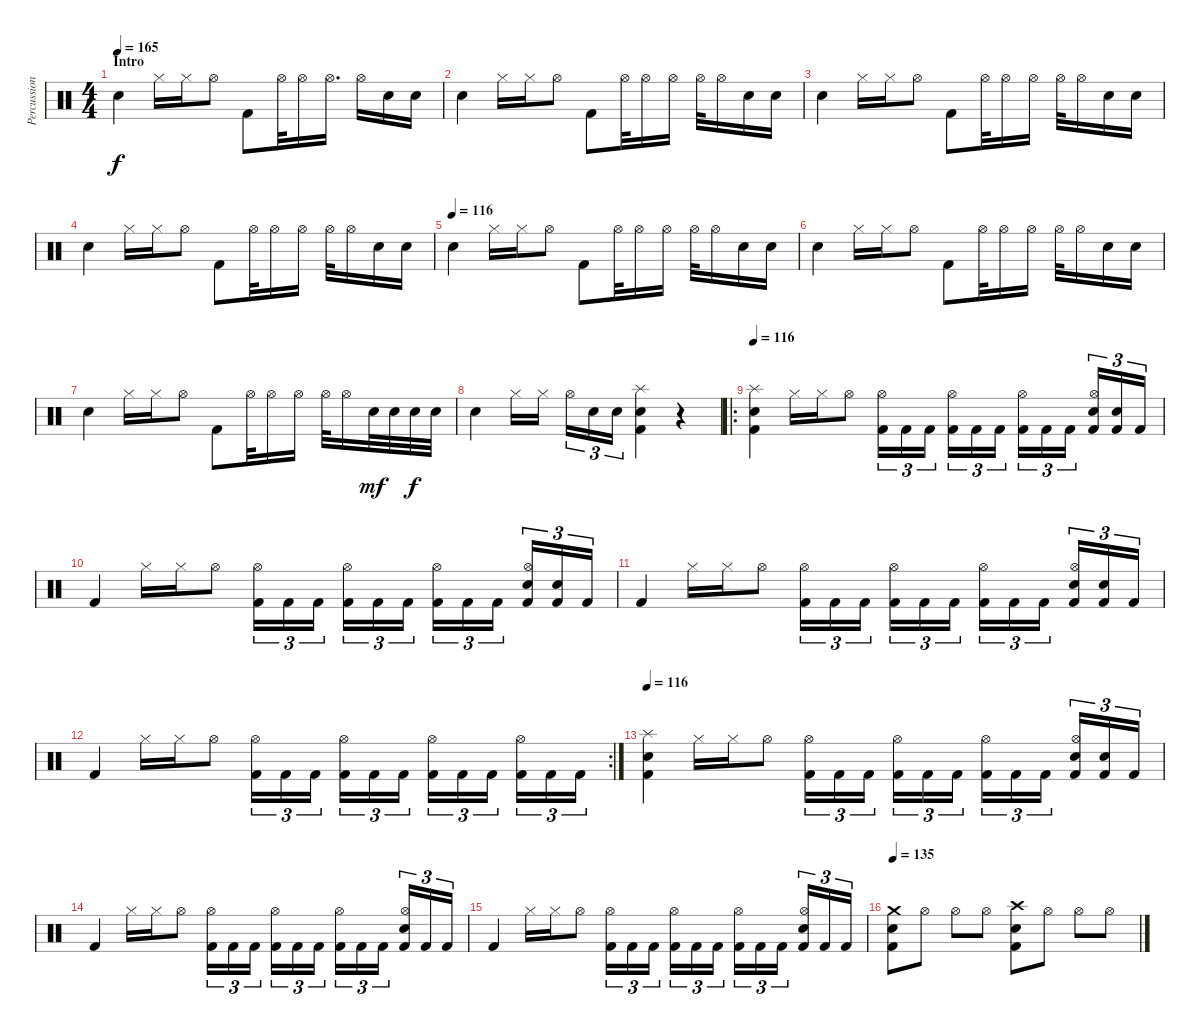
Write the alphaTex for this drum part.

\track ("Percussions" "Percussion") {instrument percussion}
\staff {score}
\articulation defaults
\ts (4 4)
\section ("" "Intro")
\tempo 165
\tempo 116
\tempo 165
\clef neutral
\ks c "Electric Snare (hit)".4{dy f} "Hi-Hat (closed)".16 "Hi-Hat (closed)".16 "Hi-Hat (open)".8 "Kick (hit) 2".8 "Hi-Hat (open)".32 "Hi-Hat (open)".16 "Hi-Hat (open)".16{d} "Hi-Hat (open)".16 "Electric Snare (hit)".16 "Electric Snare (hit)".16
|
"Electric Snare (hit)".4 "Hi-Hat (closed)".16 "Hi-Hat (closed)".16 "Hi-Hat (open)".8 "Kick (hit) 2".8 "Hi-Hat (open)".32 "Hi-Hat (open)".16 "Hi-Hat (open)".16 "Hi-Hat (open)".32 "Hi-Hat (open)".16 "Electric Snare (hit)".16 "Electric Snare (hit)".16 |
"Electric Snare (hit)".4 "Hi-Hat (closed)".16 "Hi-Hat (closed)".16 "Hi-Hat (open)".8 "Kick (hit) 2".8 "Hi-Hat (open)".32 "Hi-Hat (open)".16 "Hi-Hat (open)".16 "Hi-Hat (open)".32 "Hi-Hat (open)".16 "Electric Snare (hit)".16 "Electric Snare (hit)".16 |
"Electric Snare (hit)".4 "Hi-Hat (closed)".16 "Hi-Hat (closed)".16 "Hi-Hat (open)".8 "Kick (hit) 2".8 "Hi-Hat (open)".32 "Hi-Hat (open)".16 "Hi-Hat (open)".16 "Hi-Hat (open)".32 "Hi-Hat (open)".16 "Electric Snare (hit)".16 "Electric Snare (hit)".16 |
\tempo (116)
"Electric Snare (hit)".4 "Hi-Hat (closed)".16 "Hi-Hat (closed)".16 "Hi-Hat (open)".8 "Kick (hit) 2".8 "Hi-Hat (open)".32 "Hi-Hat (open)".16 "Hi-Hat (open)".16 "Hi-Hat (open)".32 "Hi-Hat (open)".16 "Electric Snare (hit)".16 "Electric Snare (hit)".16 |
"Electric Snare (hit)".4 "Hi-Hat (closed)".16 "Hi-Hat (closed)".16 "Hi-Hat (open)".8 "Kick (hit) 2".8 "Hi-Hat (open)".32 "Hi-Hat (open)".16 "Hi-Hat (open)".16 "Hi-Hat (open)".32 "Hi-Hat (open)".16 "Electric Snare (hit)".16 "Electric Snare (hit)".16 |
"Electric Snare (hit)".4 "Hi-Hat (closed)".16 "Hi-Hat (closed)".16 "Hi-Hat (open)".8 "Kick (hit) 2".8 "Hi-Hat (open)".32 "Hi-Hat (open)".16 "Hi-Hat (open)".16 "Hi-Hat (open)".32 "Hi-Hat (open)".16 "Electric Snare (hit)".32{dy mf} "Electric Snare (hit)".32 "Electric Snare (hit)".32{dy f} "Electric Snare (hit)".32 |
"Electric Snare (hit)".4 "Hi-Hat (closed)".16 "Hi-Hat (closed)".16 "Hi-Hat (open)".16{tu (3 2)} "Electric Snare (hit)".16{tu (3 2)} "Electric Snare (hit)".16{tu (3 2)} ("Splash (hit)" "Electric Snare (hit)" "Kick (hit) 2").4 r.4 |
\ro
\tempo 116
("Splash (hit)" "Electric Snare (hit)" "Kick (hit) 2").4 "Hi-Hat (closed)".16 "Hi-Hat (closed)".16 "Hi-Hat (open)".8 ("Hi-Hat (open)" "Kick (hit) 2").16{tu (3 2)} "Kick (hit) 2".16{tu (3 2)} "Kick (hit) 2".16{tu (3 2)} ("Hi-Hat (open)" "Kick (hit) 2").16{tu (3 2)} "Kick (hit) 2".16{tu (3 2)} "Kick (hit) 2".16{tu (3 2)} ("Hi-Hat (open)" "Kick (hit) 2").16{tu (3 2)} "Kick (hit) 2".16{tu (3 2)} "Kick (hit) 2".16{tu (3 2)} ("Hi-Hat (open)" "Electric Snare (hit)" "Kick (hit) 2").16{tu (3 2)} ("Electric Snare (hit)" "Kick (hit) 2").16{tu (3 2)} "Kick (hit) 2".16{tu (3 2)} |
"Kick (hit) 2".4 "Hi-Hat (closed)".16 "Hi-Hat (closed)".16 "Hi-Hat (open)".8 ("Hi-Hat (open)" "Kick (hit) 2").16{tu (3 2)} "Kick (hit) 2".16{tu (3 2)} "Kick (hit) 2".16{tu (3 2)} ("Hi-Hat (open)" "Kick (hit) 2").16{tu (3 2)} "Kick (hit) 2".16{tu (3 2)} "Kick (hit) 2".16{tu (3 2)} ("Hi-Hat (open)" "Kick (hit) 2").16{tu (3 2)} "Kick (hit) 2".16{tu (3 2)} "Kick (hit) 2".16{tu (3 2)} ("Hi-Hat (open)" "Electric Snare (hit)" "Kick (hit) 2").16{tu (3 2)} ("Electric Snare (hit)" "Kick (hit) 2").16{tu (3 2)} "Kick (hit) 2".16{tu (3 2)} |
"Kick (hit) 2".4 "Hi-Hat (closed)".16 "Hi-Hat (closed)".16 "Hi-Hat (open)".8 ("Hi-Hat (open)" "Kick (hit) 2").16{tu (3 2)} "Kick (hit) 2".16{tu (3 2)} "Kick (hit) 2".16{tu (3 2)} ("Hi-Hat (open)" "Kick (hit) 2").16{tu (3 2)} "Kick (hit) 2".16{tu (3 2)} "Kick (hit) 2".16{tu (3 2)} ("Hi-Hat (open)" "Kick (hit) 2").16{tu (3 2)} "Kick (hit) 2".16{tu (3 2)} "Kick (hit) 2".16{tu (3 2)} ("Hi-Hat (open)" "Electric Snare (hit)" "Kick (hit) 2").16{tu (3 2)} ("Electric Snare (hit)" "Kick (hit) 2").16{tu (3 2)} "Kick (hit) 2".16{tu (3 2)} |
\rc 2 "Kick (hit) 2".4 "Hi-Hat (closed)".16 "Hi-Hat (closed)".16 "Hi-Hat (open)".8
("Hi-Hat (open)" "Kick (hit) 2").16{tu (3 2)} "Kick (hit) 2".16{tu (3 2)} "Kick (hit) 2".16{tu (3 2)} ("Hi-Hat (open)" "Kick (hit) 2").16{tu (3 2)} "Kick (hit) 2".16{tu (3 2)} "Kick (hit) 2".16{tu (3 2)} ("Hi-Hat (open)" "Kick (hit) 2").16{tu (3 2)} "Kick (hit) 2".16{tu (3 2)} "Kick (hit) 2".16{tu (3 2)} ("Hi-Hat (open)" "Kick (hit) 2").16{tu (3 2)} "Kick (hit) 2".16{tu (3 2)} "Kick (hit) 2".16{tu (3 2)} |
\tempo 116
("Splash (hit)" "Electric Snare (hit)" "Kick (hit) 2").4 "Hi-Hat (closed)".16 "Hi-Hat (closed)".16 "Hi-Hat (open)".8 ("Hi-Hat (open)" "Kick (hit) 2").16{tu (3 2)} "Kick (hit) 2".16{tu (3 2)} "Kick (hit) 2".16{tu (3 2)} ("Hi-Hat (open)" "Kick (hit) 2").16{tu (3 2)} "Kick (hit) 2".16{tu (3 2)} "Kick (hit) 2".16{tu (3 2)} ("Hi-Hat (open)" "Kick (hit) 2").16{tu (3 2)} "Kick (hit) 2".16{tu (3 2)} "Kick (hit) 2".16{tu (3 2)} ("Hi-Hat (open)" "Electric Snare (hit)" "Kick (hit) 2").16{tu (3 2)} ("Electric Snare (hit)" "Kick (hit) 2").16{tu (3 2)} "Kick (hit) 2".16{tu (3 2)} |
"Kick (hit) 2".4 "Hi-Hat (closed)".16 "Hi-Hat (closed)".16 "Hi-Hat (open)".8 ("Hi-Hat (open)" "Kick (hit) 2").16{tu (3 2)} "Kick (hit) 2".16{tu (3 2)} "Kick (hit) 2".16{tu (3 2)} ("Hi-Hat (open)" "Kick (hit) 2").16{tu (3 2)} "Kick (hit) 2".16{tu (3 2)} "Kick (hit) 2".16{tu (3 2)} ("Hi-Hat (open)" "Kick (hit) 2").16{tu (3 2)} "Kick (hit) 2".16{tu (3 2)} "Kick (hit) 2".16{tu (3 2)} ("Hi-Hat (open)" "Electric Snare (hit)" "Kick (hit) 2").16{tu (3 2)} "Kick (hit) 2".16{tu (3 2)} "Kick (hit) 2".16{tu (3 2)} |
"Kick (hit) 2".4 "Hi-Hat (closed)".16 "Hi-Hat (closed)".16 "Hi-Hat (open)".8 ("Hi-Hat (open)" "Kick (hit) 2").16{tu (3 2)} "Kick (hit) 2".16{tu (3 2)} "Kick (hit) 2".16{tu (3 2)} ("Hi-Hat (open)" "Kick (hit) 2").16{tu (3 2)} "Kick (hit) 2".16{tu (3 2)} "Kick (hit) 2".16{tu (3 2)} ("Hi-Hat (open)" "Kick (hit) 2").16{tu (3 2)} "Kick (hit) 2".16{tu (3 2)} "Kick (hit) 2".16{tu (3 2)} ("Hi-Hat (open)" "Electric Snare (hit)" "Kick (hit) 2").16{tu (3 2)} "Kick (hit) 2".16{tu (3 2)} "Kick (hit) 2".16{tu (3 2)} |
\tempo 135
("Crash medium (hit)" "Electric Snare (hit)" "Kick (hit) 2").8 "Hi-Hat (open)".8 "Hi-Hat (open)".8 "Hi-Hat (open)".8 ("Crash high (hit)" "Electric Snare (hit)" "Kick (hit) 2").8 "Hi-Hat (open)".8 "Hi-Hat (open)".8 "Hi-Hat (open)".8
